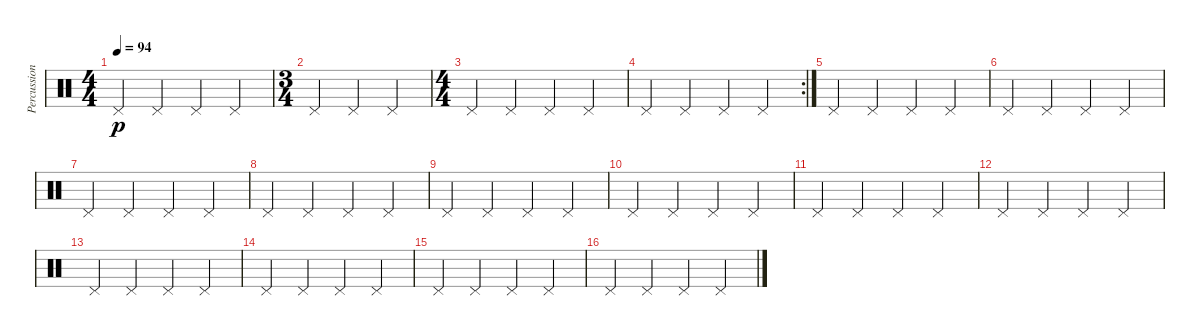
\track ("Percussions" "Percussion") {instrument percussion}
\staff {score}
\articulation defaults
\ts (4 4)
\tempo 94
\clef neutral
\ks c "Pedal Hi-Hat (hit)".4{dy p} "Pedal Hi-Hat (hit)".4 "Pedal Hi-Hat (hit)".4 "Pedal Hi-Hat (hit)".4
|
\ts (3 4)
"Pedal Hi-Hat (hit)".4 "Pedal Hi-Hat (hit)".4 "Pedal Hi-Hat (hit)".4 |
\ts (4 4)
"Pedal Hi-Hat (hit)".4 "Pedal Hi-Hat (hit)".4 "Pedal Hi-Hat (hit)".4 "Pedal Hi-Hat (hit)".4 |
\rc 2 "Pedal Hi-Hat (hit)".4 "Pedal Hi-Hat (hit)".4 "Pedal Hi-Hat (hit)".4 "Pedal Hi-Hat (hit)".4
|
"Pedal Hi-Hat (hit)".4 "Pedal Hi-Hat (hit)".4 "Pedal Hi-Hat (hit)".4 "Pedal Hi-Hat (hit)".4 |
"Pedal Hi-Hat (hit)".4 "Pedal Hi-Hat (hit)".4 "Pedal Hi-Hat (hit)".4 "Pedal Hi-Hat (hit)".4 |
"Pedal Hi-Hat (hit)".4 "Pedal Hi-Hat (hit)".4 "Pedal Hi-Hat (hit)".4 "Pedal Hi-Hat (hit)".4 |
"Pedal Hi-Hat (hit)".4 "Pedal Hi-Hat (hit)".4 "Pedal Hi-Hat (hit)".4 "Pedal Hi-Hat (hit)".4 |
"Pedal Hi-Hat (hit)".4 "Pedal Hi-Hat (hit)".4 "Pedal Hi-Hat (hit)".4 "Pedal Hi-Hat (hit)".4 |
"Pedal Hi-Hat (hit)".4 "Pedal Hi-Hat (hit)".4 "Pedal Hi-Hat (hit)".4 "Pedal Hi-Hat (hit)".4 |
"Pedal Hi-Hat (hit)".4 "Pedal Hi-Hat (hit)".4 "Pedal Hi-Hat (hit)".4 "Pedal Hi-Hat (hit)".4 |
"Pedal Hi-Hat (hit)".4 "Pedal Hi-Hat (hit)".4 "Pedal Hi-Hat (hit)".4 "Pedal Hi-Hat (hit)".4 |
"Pedal Hi-Hat (hit)".4 "Pedal Hi-Hat (hit)".4 "Pedal Hi-Hat (hit)".4 "Pedal Hi-Hat (hit)".4 |
"Pedal Hi-Hat (hit)".4 "Pedal Hi-Hat (hit)".4 "Pedal Hi-Hat (hit)".4 "Pedal Hi-Hat (hit)".4 |
"Pedal Hi-Hat (hit)".4 "Pedal Hi-Hat (hit)".4 "Pedal Hi-Hat (hit)".4 "Pedal Hi-Hat (hit)".4 |
"Pedal Hi-Hat (hit)".4 "Pedal Hi-Hat (hit)".4 "Pedal Hi-Hat (hit)".4 "Pedal Hi-Hat (hit)".4
